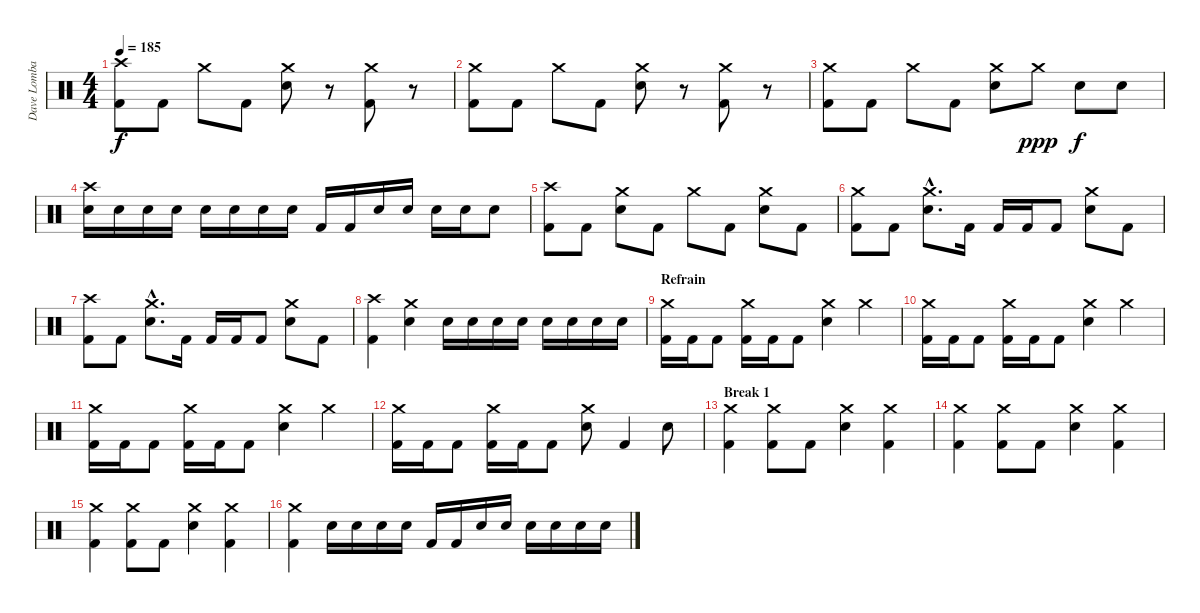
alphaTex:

\track ("Dave Lombardo - Drums" "Dave Lomba") {instrument percussion}
\staff {score}
\articulation defaults
\ts (4 4)
\tempo 185
\clef neutral
\ks c
("Crash high (hit)" "Kick (hit) 2").8{dy f} "Kick (hit) 2".8 "Crash medium (hit)".8 "Kick (hit) 2".8 ("Crash medium (hit)" "Electric Snare (hit)").8 r.8 ("Crash medium (hit)" "Kick (hit) 2").8 r.8 |
("Crash medium (hit)" "Kick (hit) 2").8 "Kick (hit) 2".8 "Crash medium (hit)".8 "Kick (hit) 2".8 ("Crash medium (hit)" "Electric Snare (hit)").8 r.8 ("Crash medium (hit)" "Kick (hit) 2").8 r.8 |
("Crash medium (hit)" "Kick (hit) 2").8 "Kick (hit) 2".8 "Crash medium (hit)".8 "Kick (hit) 2".8 ("Crash medium (hit)" "Electric Snare (hit)").8 "Crash medium (hit)".8{dy ppp} "Electric Snare (hit)".8{dy f} "Electric Snare (hit)".8 |
("Crash high (hit)" "Electric Snare (hit)").16 "Electric Snare (hit)".16 "Electric Snare (hit)".16 "Electric Snare (hit)".16 "Electric Snare (hit)".16 "Electric Snare (hit)".16 "Electric Snare (hit)".16 "Electric Snare (hit)".16 "Kick (hit) 2".16 "Kick (hit) 2".16 "Electric Snare (hit)".16 "Electric Snare (hit)".16 "Electric Snare (hit)".16 "Electric Snare (hit)".16 "Electric Snare (hit)".8 |
("Crash high (hit)" "Kick (hit) 2").8 "Kick (hit) 2".8 ("Crash medium (hit)" "Electric Snare (hit)").8 "Kick (hit) 2".8 "Crash medium (hit)".8 "Kick (hit) 2".8 ("Crash medium (hit)" "Electric Snare (hit)").8 "Kick (hit) 2".8 |
("Crash medium (hit)" "Kick (hit) 2").8 "Kick (hit) 2".8 ("Crash medium (hit)"{hac} "Electric Snare (hit)"{hac}).8{d} "Kick (hit) 2".16 "Kick (hit) 2".16 "Kick (hit) 2".16 "Kick (hit) 2".8 ("Crash medium (hit)" "Electric Snare (hit)").8 "Kick (hit) 2".8 |
("Crash high (hit)" "Kick (hit) 2").8 "Kick (hit) 2".8 ("Crash medium (hit)"{hac} "Electric Snare (hit)"{hac}).8{d} "Kick (hit) 2".16 "Kick (hit) 2".16 "Kick (hit) 2".16 "Kick (hit) 2".8 ("Crash medium (hit)" "Electric Snare (hit)").8 "Kick (hit) 2".8 |
("Crash high (hit)" "Kick (hit) 2").4 ("Crash medium (hit)" "Electric Snare (hit)").4 "Electric Snare (hit)".16 "Electric Snare (hit)".16 "Electric Snare (hit)".16 "Electric Snare (hit)".16 "Electric Snare (hit)".16 "Electric Snare (hit)".16 "Electric Snare (hit)".16 "Electric Snare (hit)".16 |
\section ("" "Refrain")
("Crash medium (hit)" "Kick (hit) 2").16 "Kick (hit) 2".16 "Kick (hit) 2".8 ("Crash medium (hit)" "Kick (hit) 2").16 "Kick (hit) 2".16 "Kick (hit) 2".8 ("Crash medium (hit)" "Electric Snare (hit)").4 "Crash medium (hit)".4 |
("Crash medium (hit)" "Kick (hit) 2").16 "Kick (hit) 2".16 "Kick (hit) 2".8 ("Crash medium (hit)" "Kick (hit) 2").16 "Kick (hit) 2".16 "Kick (hit) 2".8 ("Crash medium (hit)" "Electric Snare (hit)").4 "Crash medium (hit)".4 |
("Crash medium (hit)" "Kick (hit) 2").16 "Kick (hit) 2".16 "Kick (hit) 2".8 ("Crash medium (hit)" "Kick (hit) 2").16 "Kick (hit) 2".16 "Kick (hit) 2".8 ("Crash medium (hit)" "Electric Snare (hit)").4 "Crash medium (hit)".4 |
("Crash medium (hit)" "Kick (hit) 2").16 "Kick (hit) 2".16 "Kick (hit) 2".8 ("Crash medium (hit)" "Kick (hit) 2").16 "Kick (hit) 2".16 "Kick (hit) 2".8 ("Crash medium (hit)" "Electric Snare (hit)").8 "Kick (hit) 2".4 "Electric Snare (hit)".8 |
\section ("" "Break 1")
("Crash medium (hit)" "Kick (hit) 2").4 ("Crash medium (hit)" "Kick (hit) 2").8 "Kick (hit) 2".8 ("Crash medium (hit)" "Electric Snare (hit)").4 ("Crash medium (hit)" "Kick (hit) 2").4 |
("Crash medium (hit)" "Kick (hit) 2").4 ("Crash medium (hit)" "Kick (hit) 2").8 "Kick (hit) 2".8 ("Crash medium (hit)" "Electric Snare (hit)").4 ("Crash medium (hit)" "Kick (hit) 2").4 |
("Crash medium (hit)" "Kick (hit) 2").4 ("Crash medium (hit)" "Kick (hit) 2").8 "Kick (hit) 2".8 ("Crash medium (hit)" "Electric Snare (hit)").4 ("Crash medium (hit)" "Kick (hit) 2").4 |
("Crash medium (hit)" "Kick (hit) 2").4 "Electric Snare (hit)".16 "Electric Snare (hit)".16 "Electric Snare (hit)".16 "Electric Snare (hit)".16 "Kick (hit) 2".16 "Kick (hit) 2".16 "Electric Snare (hit)".16 "Electric Snare (hit)".16 "Electric Snare (hit)".16 "Electric Snare (hit)".16 "Electric Snare (hit)".16 "Electric Snare (hit)".16
